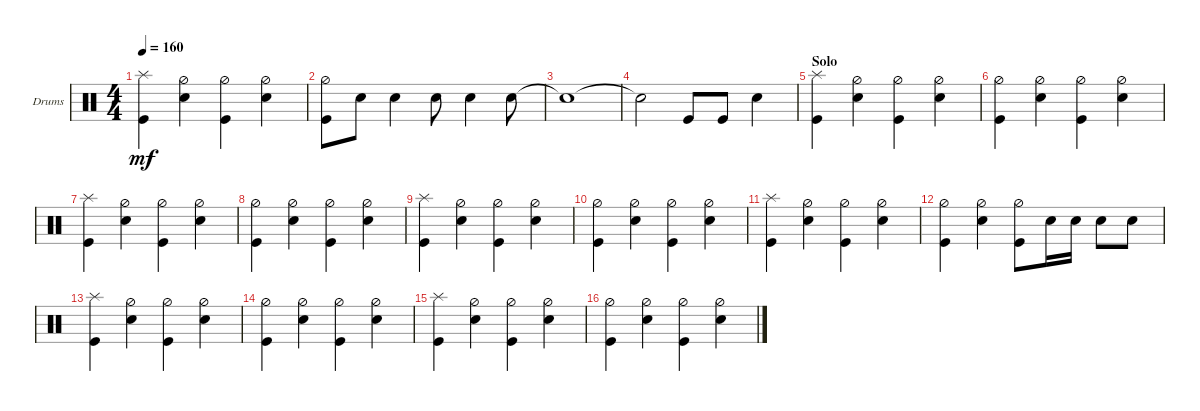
\defaultSystemsLayout 4
\bracketExtendMode groupsimilarinstruments
\firstSystemTrackNameOrientation horizontal
\otherSystemsTrackNameOrientation horizontal
\track ("Drumkit" "Drums") {instrument percussion}
\staff {score}
\articulation defaults
\ts (4 4)
\tempo 160
\clef neutral
\ks c
("Kick (hit)" "Splash (hit)").4{dy mf} ("Hi-Hat (half)" "Snare (hit) 2").4 ("Hi-Hat (half)" "Kick (hit)").4 ("Hi-Hat (half)" "Snare (hit) 2").4 |
("Hi-Hat (half)" "Kick (hit)").8 "Snare (hit) 2".8 "Snare (hit) 2".4 "Snare (hit) 2".8 "Snare (hit) 2".4 "Snare (hit) 2".8 |
"Snare (hit) 2"{t}.1 |
"Snare (hit) 2"{t}.2 "Kick (hit)".8 "Kick (hit)".8 "Snare (hit) 2".4 |
\section ("" "Solo")
("Kick (hit)" "Splash (hit)").4 ("Hi-Hat (half)" "Snare (hit) 2").4 ("Hi-Hat (half)" "Kick (hit)").4 ("Hi-Hat (half)" "Snare (hit) 2").4 |
("Hi-Hat (half)" "Kick (hit)").4 ("Hi-Hat (half)" "Snare (hit) 2").4 ("Hi-Hat (half)" "Kick (hit)").4 ("Hi-Hat (half)" "Snare (hit) 2").4 |
("Kick (hit)" "Splash (hit)").4 ("Hi-Hat (half)" "Snare (hit) 2").4 ("Hi-Hat (half)" "Kick (hit)").4 ("Hi-Hat (half)" "Snare (hit) 2").4 |
("Hi-Hat (half)" "Kick (hit)").4 ("Hi-Hat (half)" "Snare (hit) 2").4 ("Hi-Hat (half)" "Kick (hit)").4 ("Hi-Hat (half)" "Snare (hit) 2").4 |
("Kick (hit)" "Splash (hit)").4 ("Hi-Hat (half)" "Snare (hit) 2").4 ("Hi-Hat (half)" "Kick (hit)").4 ("Hi-Hat (half)" "Snare (hit) 2").4 |
("Hi-Hat (half)" "Kick (hit)").4 ("Hi-Hat (half)" "Snare (hit) 2").4 ("Hi-Hat (half)" "Kick (hit)").4 ("Hi-Hat (half)" "Snare (hit) 2").4 |
("Kick (hit)" "Splash (hit)").4 ("Hi-Hat (half)" "Snare (hit) 2").4 ("Hi-Hat (half)" "Kick (hit)").4 ("Hi-Hat (half)" "Snare (hit) 2").4 |
("Hi-Hat (half)" "Kick (hit)").4 ("Hi-Hat (half)" "Snare (hit) 2").4 ("Hi-Hat (half)" "Kick (hit)").8 "Snare (hit) 2".16 "Snare (hit) 2".16 "Snare (hit) 2".8 "Snare (hit) 2".8 |
("Kick (hit)" "Splash (hit)").4 ("Hi-Hat (half)" "Snare (hit) 2").4 ("Hi-Hat (half)" "Kick (hit)").4 ("Hi-Hat (half)" "Snare (hit) 2").4 |
("Hi-Hat (half)" "Kick (hit)").4 ("Hi-Hat (half)" "Snare (hit) 2").4 ("Hi-Hat (half)" "Kick (hit)").4 ("Hi-Hat (half)" "Snare (hit) 2").4 |
("Kick (hit)" "Splash (hit)").4 ("Hi-Hat (half)" "Snare (hit) 2").4 ("Hi-Hat (half)" "Kick (hit)").4 ("Hi-Hat (half)" "Snare (hit) 2").4 |
("Hi-Hat (half)" "Kick (hit)").4 ("Hi-Hat (half)" "Snare (hit) 2").4 ("Hi-Hat (half)" "Kick (hit)").4 ("Hi-Hat (half)" "Snare (hit) 2").4
